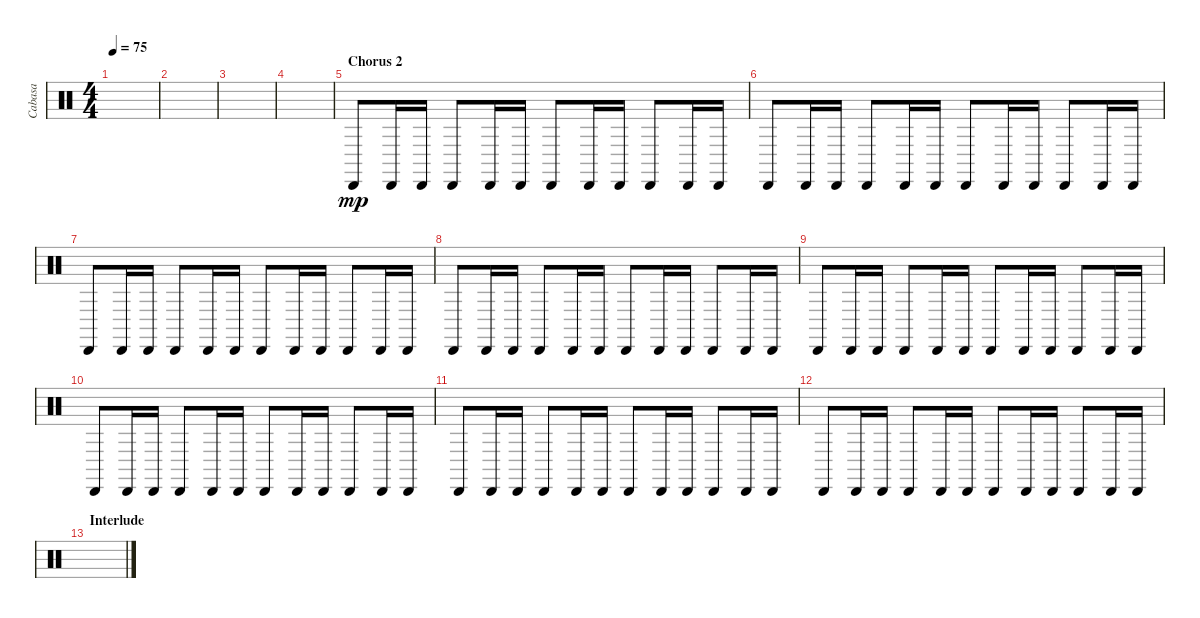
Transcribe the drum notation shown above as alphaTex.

\track ("Cabasa" "Cabasa") {instrument percussion}
\staff {score}
\articulation defaults
\ts (4 4)
\tempo 75
\clef neutral
\ks c
|
|
|
|
\section ("" "Chorus 2")
"Cabasa (hit)".8{dy mp} "Cabasa (hit)".16 "Cabasa (hit)".16 "Cabasa (hit)".8 "Cabasa (hit)".16 "Cabasa (hit)".16 "Cabasa (hit)".8 "Cabasa (hit)".16 "Cabasa (hit)".16 "Cabasa (hit)".8 "Cabasa (hit)".16 "Cabasa (hit)".16 |
"Cabasa (hit)".8 "Cabasa (hit)".16 "Cabasa (hit)".16 "Cabasa (hit)".8 "Cabasa (hit)".16 "Cabasa (hit)".16 "Cabasa (hit)".8 "Cabasa (hit)".16 "Cabasa (hit)".16 "Cabasa (hit)".8 "Cabasa (hit)".16 "Cabasa (hit)".16 |
"Cabasa (hit)".8 "Cabasa (hit)".16 "Cabasa (hit)".16 "Cabasa (hit)".8 "Cabasa (hit)".16 "Cabasa (hit)".16 "Cabasa (hit)".8 "Cabasa (hit)".16 "Cabasa (hit)".16 "Cabasa (hit)".8 "Cabasa (hit)".16 "Cabasa (hit)".16 |
"Cabasa (hit)".8 "Cabasa (hit)".16 "Cabasa (hit)".16 "Cabasa (hit)".8 "Cabasa (hit)".16 "Cabasa (hit)".16 "Cabasa (hit)".8 "Cabasa (hit)".16 "Cabasa (hit)".16 "Cabasa (hit)".8 "Cabasa (hit)".16 "Cabasa (hit)".16 |
"Cabasa (hit)".8 "Cabasa (hit)".16 "Cabasa (hit)".16 "Cabasa (hit)".8 "Cabasa (hit)".16 "Cabasa (hit)".16 "Cabasa (hit)".8 "Cabasa (hit)".16 "Cabasa (hit)".16 "Cabasa (hit)".8 "Cabasa (hit)".16 "Cabasa (hit)".16 |
"Cabasa (hit)".8 "Cabasa (hit)".16 "Cabasa (hit)".16 "Cabasa (hit)".8 "Cabasa (hit)".16 "Cabasa (hit)".16 "Cabasa (hit)".8 "Cabasa (hit)".16 "Cabasa (hit)".16 "Cabasa (hit)".8 "Cabasa (hit)".16 "Cabasa (hit)".16 |
"Cabasa (hit)".8 "Cabasa (hit)".16 "Cabasa (hit)".16 "Cabasa (hit)".8 "Cabasa (hit)".16 "Cabasa (hit)".16 "Cabasa (hit)".8 "Cabasa (hit)".16 "Cabasa (hit)".16 "Cabasa (hit)".8 "Cabasa (hit)".16 "Cabasa (hit)".16 |
"Cabasa (hit)".8 "Cabasa (hit)".16 "Cabasa (hit)".16 "Cabasa (hit)".8 "Cabasa (hit)".16 "Cabasa (hit)".16 "Cabasa (hit)".8 "Cabasa (hit)".16 "Cabasa (hit)".16 "Cabasa (hit)".8 "Cabasa (hit)".16 "Cabasa (hit)".16 |
\section ("" "Interlude")
